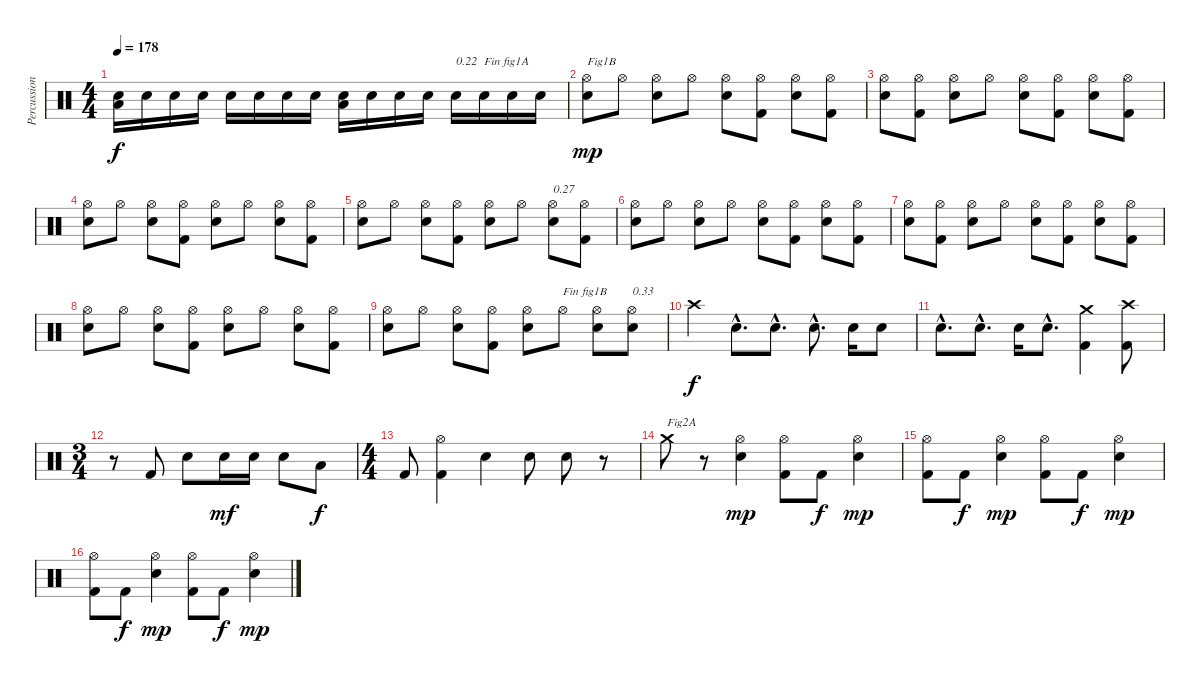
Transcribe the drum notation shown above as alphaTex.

\track ("Percussions" "Percussion") {instrument percussion}
\staff {score}
\articulation defaults
\ts (4 4)
\tempo 178
\clef neutral
\ks c
("Low Floor Tom (hit)" "Electric Snare (hit)").16{dy f} "Electric Snare (hit)".16 "Electric Snare (hit)".16 "Electric Snare (hit)".16 "Electric Snare (hit)".16 "Electric Snare (hit)".16 "Electric Snare (hit)".16 "Electric Snare (hit)".16 ("Low Floor Tom (hit)" "Electric Snare (hit)").16 "Electric Snare (hit)".16 "Electric Snare (hit)".16 "Electric Snare (hit)".16 "Electric Snare (hit)".16{txt "0.22"} "Electric Snare (hit)".16{txt "Fin fig1A"} "Electric Snare (hit)".16 "Electric Snare (hit)".16 |
("Electric Snare (hit)" "Hi-Hat (open)").8{txt "Fig1B" dy mp} "Hi-Hat (open)".8 ("Electric Snare (hit)" "Hi-Hat (open)").8 "Hi-Hat (open)".8 ("Electric Snare (hit)" "Hi-Hat (open)").8 ("Kick (hit) 2" "Hi-Hat (open)").8 ("Electric Snare (hit)" "Hi-Hat (open)").8 ("Kick (hit) 2" "Hi-Hat (open)").8 |
("Electric Snare (hit)" "Hi-Hat (open)").8 ("Kick (hit) 2" "Hi-Hat (open)").8 ("Electric Snare (hit)" "Hi-Hat (open)").8 "Hi-Hat (open)".8 ("Electric Snare (hit)" "Hi-Hat (open)").8 ("Kick (hit) 2" "Hi-Hat (open)").8 ("Electric Snare (hit)" "Hi-Hat (open)").8 ("Kick (hit) 2" "Hi-Hat (open)").8 |
("Electric Snare (hit)" "Hi-Hat (open)").8 "Hi-Hat (open)".8 ("Electric Snare (hit)" "Hi-Hat (open)").8 ("Kick (hit) 2" "Hi-Hat (open)").8 ("Electric Snare (hit)" "Hi-Hat (open)").8 "Hi-Hat (open)".8 ("Electric Snare (hit)" "Hi-Hat (open)").8 ("Kick (hit) 2" "Hi-Hat (open)").8 |
("Electric Snare (hit)" "Hi-Hat (open)").8 "Hi-Hat (open)".8 ("Electric Snare (hit)" "Hi-Hat (open)").8 ("Kick (hit) 2" "Hi-Hat (open)").8 ("Electric Snare (hit)" "Hi-Hat (open)").8 "Hi-Hat (open)".8 ("Electric Snare (hit)" "Hi-Hat (open)").8{txt "0.27"} ("Kick (hit) 2" "Hi-Hat (open)").8 |
("Electric Snare (hit)" "Hi-Hat (open)").8 "Hi-Hat (open)".8 ("Electric Snare (hit)" "Hi-Hat (open)").8 "Hi-Hat (open)".8 ("Electric Snare (hit)" "Hi-Hat (open)").8 ("Kick (hit) 2" "Hi-Hat (open)").8 ("Electric Snare (hit)" "Hi-Hat (open)").8 ("Kick (hit) 2" "Hi-Hat (open)").8 |
("Electric Snare (hit)" "Hi-Hat (open)").8 ("Kick (hit) 2" "Hi-Hat (open)").8 ("Electric Snare (hit)" "Hi-Hat (open)").8 "Hi-Hat (open)".8 ("Electric Snare (hit)" "Hi-Hat (open)").8 ("Kick (hit) 2" "Hi-Hat (open)").8 ("Electric Snare (hit)" "Hi-Hat (open)").8 ("Kick (hit) 2" "Hi-Hat (open)").8 |
("Electric Snare (hit)" "Hi-Hat (open)").8 "Hi-Hat (open)".8 ("Electric Snare (hit)" "Hi-Hat (open)").8 ("Kick (hit) 2" "Hi-Hat (open)").8 ("Electric Snare (hit)" "Hi-Hat (open)").8 "Hi-Hat (open)".8 ("Electric Snare (hit)" "Hi-Hat (open)").8 ("Kick (hit) 2" "Hi-Hat (open)").8 |
("Electric Snare (hit)" "Hi-Hat (open)").8 "Hi-Hat (open)".8 ("Electric Snare (hit)" "Hi-Hat (open)").8 ("Kick (hit) 2" "Hi-Hat (open)").8 ("Electric Snare (hit)" "Hi-Hat (open)").8 "Hi-Hat (open)".8{txt "Fin fig1B"} ("Electric Snare (hit)" "Hi-Hat (open)").8 ("Electric Snare (hit)" "Hi-Hat (open)").8{txt "0.33"} |
"Crash high (hit)".4{dy f} "Electric Snare (hit)"{hac}.8{d} "Electric Snare (hit)"{hac}.8{d} "Electric Snare (hit)"{hac}.8{d} "Electric Snare (hit)".16 "Electric Snare (hit)".8 |
"Electric Snare (hit)"{hac}.8{d} "Electric Snare (hit)"{hac}.8{d} "Electric Snare (hit)".16 "Electric Snare (hit)"{hac}.8{d} ("Kick (hit) 2" "Crash medium (hit)").4 ("Kick (hit) 2" "Crash high (hit)").8 |
\ts (3 4)
r.8 "Kick (hit) 2".8 "Electric Snare (hit)".8 "Electric Snare (hit)".16{dy mf} "Electric Snare (hit)".16 "Electric Snare (hit)".8 "Low Floor Tom (hit)".8{dy f} |
\ts (4 4)
"Kick (hit) 2".8 ("Kick (hit) 2" "Hi-Hat (open)").4 "Electric Snare (hit)".4 "Electric Snare (hit)".8 "Electric Snare (hit)".8 r.8 |
"Crash medium (hit)".8{txt "Fig2A"} r.8 ("Electric Snare (hit)" "Hi-Hat (open)").4{dy mp} ("Kick (hit) 2" "Hi-Hat (open)").8 "Kick (hit) 2".8{dy f} ("Electric Snare (hit)" "Hi-Hat (open)").4{dy mp} |
("Kick (hit) 2" "Hi-Hat (open)").8 "Kick (hit) 2".8{dy f} ("Electric Snare (hit)" "Hi-Hat (open)").4{dy mp} ("Kick (hit) 2" "Hi-Hat (open)").8 "Kick (hit) 2".8{dy f} ("Electric Snare (hit)" "Hi-Hat (open)").4{dy mp} |
("Kick (hit) 2" "Hi-Hat (open)").8 "Kick (hit) 2".8{dy f} ("Electric Snare (hit)" "Hi-Hat (open)").4{dy mp} ("Kick (hit) 2" "Hi-Hat (open)").8 "Kick (hit) 2".8{dy f} ("Electric Snare (hit)" "Hi-Hat (open)").4{dy mp}
